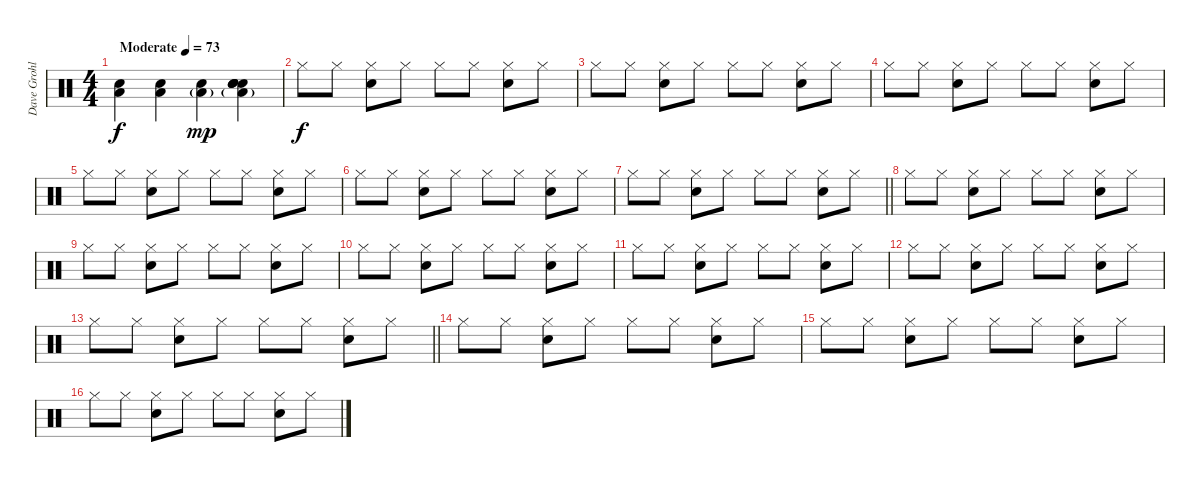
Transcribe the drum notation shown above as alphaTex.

\track ("Dave Grohl (Nirvana)" "Dave Grohl") {instrument percussion}
\staff {score}
\articulation defaults
\ts (4 4)
\tempo (73 "Moderate")
\clef neutral
\ks c
("Low Tom (hit)" "Electric Snare (hit)").4{dy f} ("Low Tom (hit)" "Electric Snare (hit)").4 ("Low Tom (hit)"{g} "Electric Snare (hit)").4{dy mp} ("Low Tom (hit)"{g} "Electric Snare (hit)" "Snare (hit)" "Snare (hit)" "Snare (hit)").4 |
"Hi-Hat (closed)".8{dy f} "Hi-Hat (closed)".8 ("Electric Snare (hit)" "Hi-Hat (closed)").8 "Hi-Hat (closed)".8 "Hi-Hat (closed)".8 "Hi-Hat (closed)".8 ("Electric Snare (hit)" "Hi-Hat (closed)").8 "Hi-Hat (closed)".8 |
"Hi-Hat (closed)".8 "Hi-Hat (closed)".8 ("Electric Snare (hit)" "Hi-Hat (closed)").8 "Hi-Hat (closed)".8 "Hi-Hat (closed)".8 "Hi-Hat (closed)".8 ("Electric Snare (hit)" "Hi-Hat (closed)").8 "Hi-Hat (closed)".8 |
"Hi-Hat (closed)".8 "Hi-Hat (closed)".8 ("Electric Snare (hit)" "Hi-Hat (closed)").8 "Hi-Hat (closed)".8 "Hi-Hat (closed)".8 "Hi-Hat (closed)".8 ("Electric Snare (hit)" "Hi-Hat (closed)").8 "Hi-Hat (closed)".8 |
"Hi-Hat (closed)".8 "Hi-Hat (closed)".8 ("Electric Snare (hit)" "Hi-Hat (closed)").8 "Hi-Hat (closed)".8 "Hi-Hat (closed)".8 "Hi-Hat (closed)".8 ("Electric Snare (hit)" "Hi-Hat (closed)").8 "Hi-Hat (closed)".8 |
"Hi-Hat (closed)".8 "Hi-Hat (closed)".8 ("Electric Snare (hit)" "Hi-Hat (closed)").8 "Hi-Hat (closed)".8 "Hi-Hat (closed)".8 "Hi-Hat (closed)".8 ("Electric Snare (hit)" "Hi-Hat (closed)").8 "Hi-Hat (closed)".8 |
\barLineRight lightlight "Hi-Hat (closed)".8 "Hi-Hat (closed)".8
("Electric Snare (hit)" "Hi-Hat (closed)").8 "Hi-Hat (closed)".8 "Hi-Hat (closed)".8 "Hi-Hat (closed)".8 ("Electric Snare (hit)" "Hi-Hat (closed)").8 "Hi-Hat (closed)".8 |
"Hi-Hat (closed)".8 "Hi-Hat (closed)".8 ("Electric Snare (hit)" "Hi-Hat (closed)").8 "Hi-Hat (closed)".8 "Hi-Hat (closed)".8 "Hi-Hat (closed)".8 ("Electric Snare (hit)" "Hi-Hat (closed)").8 "Hi-Hat (closed)".8 |
"Hi-Hat (closed)".8 "Hi-Hat (closed)".8 ("Electric Snare (hit)" "Hi-Hat (closed)").8 "Hi-Hat (closed)".8 "Hi-Hat (closed)".8 "Hi-Hat (closed)".8 ("Electric Snare (hit)" "Hi-Hat (closed)").8 "Hi-Hat (closed)".8 |
"Hi-Hat (closed)".8 "Hi-Hat (closed)".8 ("Electric Snare (hit)" "Hi-Hat (closed)").8 "Hi-Hat (closed)".8 "Hi-Hat (closed)".8 "Hi-Hat (closed)".8 ("Electric Snare (hit)" "Hi-Hat (closed)").8 "Hi-Hat (closed)".8 |
"Hi-Hat (closed)".8 "Hi-Hat (closed)".8 ("Electric Snare (hit)" "Hi-Hat (closed)").8 "Hi-Hat (closed)".8 "Hi-Hat (closed)".8 "Hi-Hat (closed)".8 ("Electric Snare (hit)" "Hi-Hat (closed)").8 "Hi-Hat (closed)".8 |
"Hi-Hat (closed)".8 "Hi-Hat (closed)".8 ("Electric Snare (hit)" "Hi-Hat (closed)").8 "Hi-Hat (closed)".8 "Hi-Hat (closed)".8 "Hi-Hat (closed)".8 ("Electric Snare (hit)" "Hi-Hat (closed)").8 "Hi-Hat (closed)".8 |
\barLineRight lightlight "Hi-Hat (closed)".8 "Hi-Hat (closed)".8
("Electric Snare (hit)" "Hi-Hat (closed)").8 "Hi-Hat (closed)".8 "Hi-Hat (closed)".8 "Hi-Hat (closed)".8 ("Electric Snare (hit)" "Hi-Hat (closed)").8 "Hi-Hat (closed)".8 |
"Hi-Hat (closed)".8 "Hi-Hat (closed)".8 ("Electric Snare (hit)" "Hi-Hat (closed)").8 "Hi-Hat (closed)".8 "Hi-Hat (closed)".8 "Hi-Hat (closed)".8 ("Electric Snare (hit)" "Hi-Hat (closed)").8 "Hi-Hat (closed)".8 |
"Hi-Hat (closed)".8 "Hi-Hat (closed)".8 ("Electric Snare (hit)" "Hi-Hat (closed)").8 "Hi-Hat (closed)".8 "Hi-Hat (closed)".8 "Hi-Hat (closed)".8 ("Electric Snare (hit)" "Hi-Hat (closed)").8 "Hi-Hat (closed)".8 |
"Hi-Hat (closed)".8 "Hi-Hat (closed)".8 ("Electric Snare (hit)" "Hi-Hat (closed)").8 "Hi-Hat (closed)".8 "Hi-Hat (closed)".8 "Hi-Hat (closed)".8 ("Electric Snare (hit)" "Hi-Hat (closed)").8 "Hi-Hat (closed)".8
